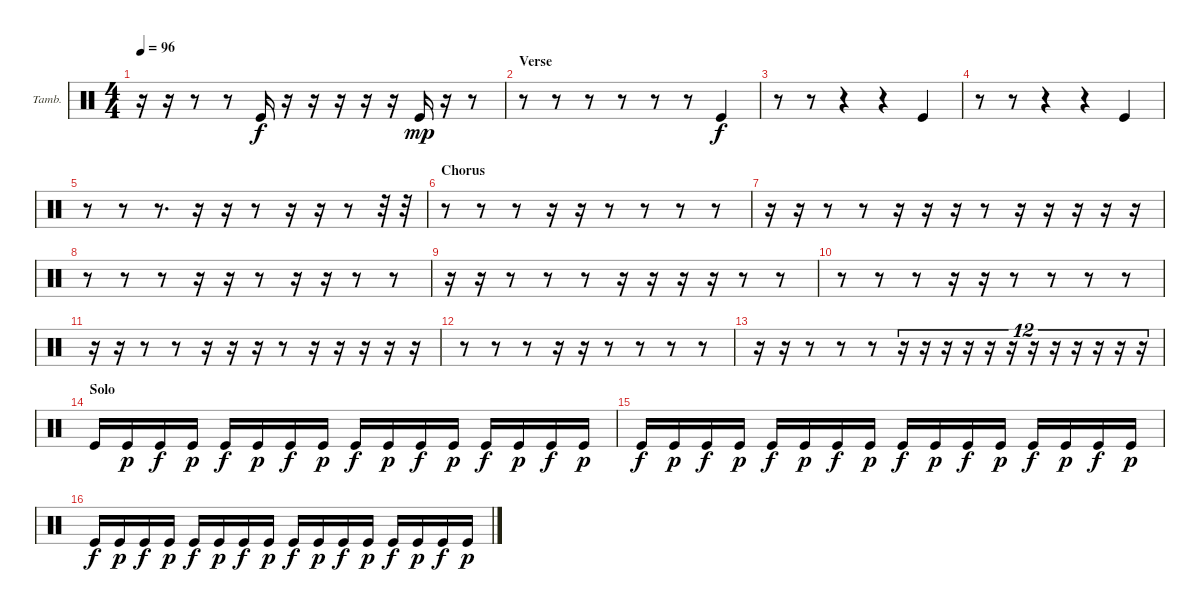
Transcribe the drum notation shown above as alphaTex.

\defaultSystemsLayout 4
\bracketExtendMode nobrackets
\firstSystemTrackNameOrientation horizontal
\otherSystemsTrackNameOrientation horizontal
\track ("Tambourine" "Tamb.") {instrument percussion}
\staff {score}
\articulation defaults
\ts (4 4)
\tempo 96
\clef neutral
\ks c
r.16{dy f} r.16 r.8 r.8 "Kick (hit)".16 r.16 r.16 r.16 r.16 r.16 "Kick (hit)".16{dy mp} r.16 r.8 |
\section ("" "Verse")
r.8 r.8 r.8 r.8 r.8 r.8 "Kick (hit)".4{dy f} |
r.8 r.8 r.4 r.4 "Kick (hit)".4 |
r.8 r.8 r.4 r.4 "Kick (hit)".4 |
r.8 r.8 r.8{d} r.16 r.16 r.8 r.16 r.16 r.8 r.32 r.32 |
\section ("" "Chorus")
r.8 r.8 r.8 r.16 r.16 r.8 r.8 r.8 r.8 |
r.16 r.16 r.8 r.8 r.16 r.16 r.16 r.8 r.16 r.16 r.16 r.16 r.16 |
r.8 r.8 r.8 r.16 r.16 r.8 r.16 r.16 r.8 r.8 |
r.16 r.16 r.8 r.8 r.8 r.16 r.16 r.16 r.16 r.8 r.8 |
r.8 r.8 r.8 r.16 r.16 r.8 r.8 r.8 r.8 |
r.16 r.16 r.8 r.8 r.16 r.16 r.16 r.8 r.16 r.16 r.16 r.16 r.16 |
r.8 r.8 r.8 r.16 r.16 r.8 r.8 r.8 r.8 |
r.16 r.16 r.8 r.8 r.8 r.16{tu (12 8)} r.16{tu (12 8)} r.16{tu (12 8)} r.16{tu (12 8)} r.16{tu (12 8)} r.16{tu (12 8)} r.16{tu (12 8)} r.16{tu (12 8)} r.16{tu (12 8)} r.16{tu (12 8)} r.16{tu (12 8)} r.16{tu (12 8)} |
\section ("" "Solo")
"Kick (hit)".16 "Kick (hit)".16{dy p} "Kick (hit)".16{dy f} "Kick (hit)".16{dy p} "Kick (hit)".16{dy f} "Kick (hit)".16{dy p} "Kick (hit)".16{dy f} "Kick (hit)".16{dy p} "Kick (hit)".16{dy f} "Kick (hit)".16{dy p} "Kick (hit)".16{dy f} "Kick (hit)".16{dy p} "Kick (hit)".16{dy f} "Kick (hit)".16{dy p} "Kick (hit)".16{dy f} "Kick (hit)".16{dy p} |
"Kick (hit)".16{dy f} "Kick (hit)".16{dy p} "Kick (hit)".16{dy f} "Kick (hit)".16{dy p} "Kick (hit)".16{dy f} "Kick (hit)".16{dy p} "Kick (hit)".16{dy f} "Kick (hit)".16{dy p} "Kick (hit)".16{dy f} "Kick (hit)".16{dy p} "Kick (hit)".16{dy f} "Kick (hit)".16{dy p} "Kick (hit)".16{dy f} "Kick (hit)".16{dy p} "Kick (hit)".16{dy f} "Kick (hit)".16{dy p} |
"Kick (hit)".16{dy f} "Kick (hit)".16{dy p} "Kick (hit)".16{dy f} "Kick (hit)".16{dy p} "Kick (hit)".16{dy f} "Kick (hit)".16{dy p} "Kick (hit)".16{dy f} "Kick (hit)".16{dy p} "Kick (hit)".16{dy f} "Kick (hit)".16{dy p} "Kick (hit)".16{dy f} "Kick (hit)".16{dy p} "Kick (hit)".16{dy f} "Kick (hit)".16{dy p} "Kick (hit)".16{dy f} "Kick (hit)".16{dy p}
